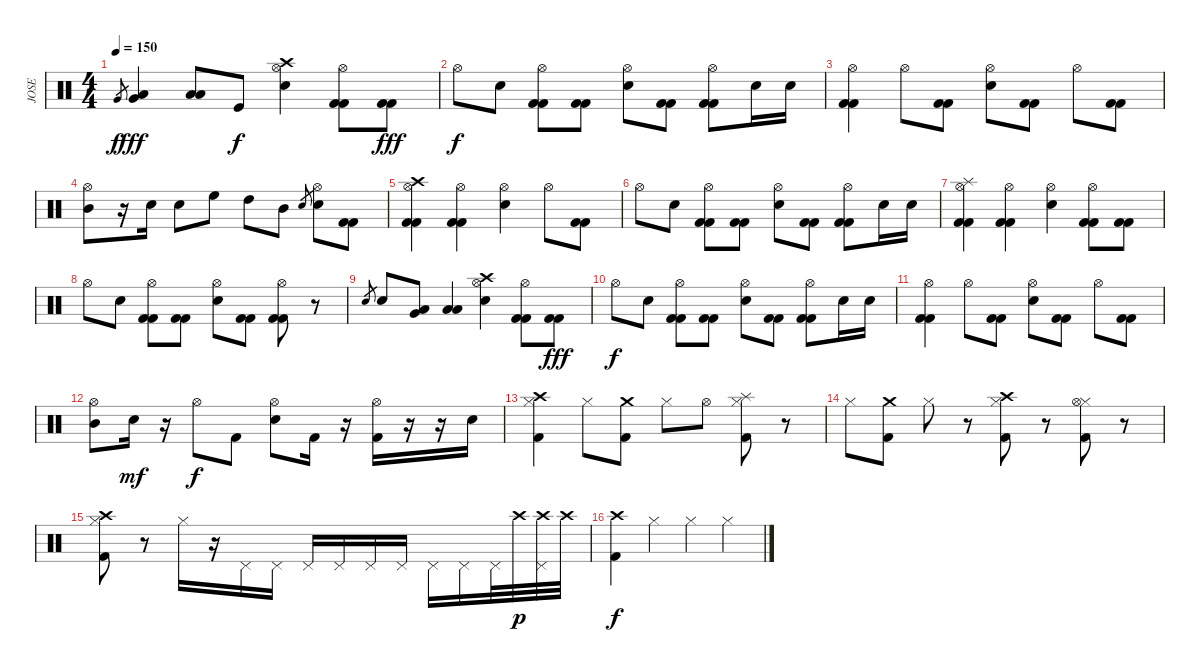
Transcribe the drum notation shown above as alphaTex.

\track ("JOSE" "JOSE") {instrument percussion}
\staff {score}
\articulation defaults
\ts (4 4)
\tempo 150
\clef neutral
\ks c "Very Low Tom (hit)".8{gr dy f}
("Low Tom (hit)" "Very Low Tom (hit)").4{dy fff} ("Low Tom (hit)" "Low Floor Tom (hit)").8 "Kick (hit)".8{dy f} ("Hi-Hat (open)" "Crash high (hit)" "Electric Snare (hit)").4 ("Hi-Hat (open)" "Kick (hit) 2" "Kick (hit) 2").8 ("Kick (hit) 2" "Kick (hit) 2").8{dy fff} |
"Hi-Hat (open)".8{dy f} "Electric Snare (hit)".8 ("Hi-Hat (open)" "Kick (hit) 2" "Kick (hit) 2").8 ("Kick (hit) 2" "Kick (hit) 2").8 ("Hi-Hat (open)" "Electric Snare (hit)").8 ("Kick (hit) 2" "Kick (hit) 2").8 ("Hi-Hat (open)" "Kick (hit) 2" "Kick (hit) 2").8 "Electric Snare (hit)".16 "Electric Snare (hit)".16 |
("Hi-Hat (open)" "Kick (hit) 2" "Kick (hit) 2").4 "Hi-Hat (open)".8 ("Kick (hit) 2" "Kick (hit) 2").8 ("Hi-Hat (open)" "Electric Snare (hit)").8 ("Kick (hit) 2" "Kick (hit) 2").8 "Hi-Hat (open)".8 ("Kick (hit) 2" "Kick (hit) 2").8 |
("Hi-Hat (open)" "Mid Tom (hit)").8 r.16 "Electric Snare (hit)".16 "Electric Snare (hit)".8 "High Floor Tom (hit)".8 "High Tom (hit)".8 "Mid Tom (hit)".8 "Electric Snare (hit)".8{gr} ("Hi-Hat (open)" "Electric Snare (hit)").8 ("Kick (hit) 2" "Kick (hit) 2").8 |
("Hi-Hat (open)" "Crash high (hit)" "Kick (hit) 2" "Kick (hit) 2").4 ("Hi-Hat (open)" "Kick (hit) 2" "Kick (hit) 2").4 ("Hi-Hat (open)" "Electric Snare (hit)").4 "Hi-Hat (open)".8 ("Kick (hit) 2" "Kick (hit) 2").8 |
"Hi-Hat (open)".8 "Electric Snare (hit)".8 ("Hi-Hat (open)" "Kick (hit) 2" "Kick (hit) 2").8 ("Kick (hit) 2" "Kick (hit) 2").8 ("Hi-Hat (open)" "Electric Snare (hit)").8 ("Kick (hit) 2" "Kick (hit) 2").8 ("Hi-Hat (open)" "Kick (hit) 2" "Kick (hit) 2").8 "Electric Snare (hit)".16 "Electric Snare (hit)".16 |
("Hi-Hat (open)" "Splash (hit)" "Kick (hit) 2" "Kick (hit) 2").4 ("Hi-Hat (open)" "Kick (hit) 2" "Kick (hit) 2").4 ("Hi-Hat (open)" "Electric Snare (hit)").4 ("Hi-Hat (open)" "Kick (hit) 2" "Kick (hit) 2").8 ("Kick (hit) 2" "Kick (hit) 2").8 |
"Hi-Hat (open)".8 "Electric Snare (hit)".8 ("Hi-Hat (open)" "Kick (hit) 2" "Kick (hit) 2").8 ("Kick (hit) 2" "Kick (hit) 2").8 ("Hi-Hat (open)" "Electric Snare (hit)").8 ("Kick (hit) 2" "Kick (hit) 2").8 ("Hi-Hat (open)" "Kick (hit) 2" "Kick (hit) 2").8 r.8 |
"Electric Snare (hit)".8{gr} "Electric Snare (hit)".8 ("Very Low Tom (hit)" "Low Tom (hit)").8 ("Low Floor Tom (hit)" "Low Tom (hit)").4 ("Hi-Hat (open)" "Crash high (hit)" "Electric Snare (hit)").4 ("Hi-Hat (open)" "Kick (hit) 2" "Kick (hit) 2").8 ("Kick (hit) 2" "Kick (hit) 2").8{dy fff} |
"Hi-Hat (open)".8{dy f} "Electric Snare (hit)".8 ("Hi-Hat (open)" "Kick (hit) 2" "Kick (hit) 2").8 ("Kick (hit) 2" "Kick (hit) 2").8 ("Hi-Hat (open)" "Electric Snare (hit)").8 ("Kick (hit) 2" "Kick (hit) 2").8 ("Hi-Hat (open)" "Kick (hit) 2" "Kick (hit) 2").8 "Electric Snare (hit)".16 "Electric Snare (hit)".16 |
("Hi-Hat (open)" "Kick (hit) 2" "Kick (hit) 2").4 "Hi-Hat (open)".8 ("Kick (hit) 2" "Kick (hit) 2").8 ("Hi-Hat (open)" "Electric Snare (hit)").8 ("Kick (hit) 2" "Kick (hit) 2").8 "Hi-Hat (open)".8 ("Kick (hit) 2" "Kick (hit) 2").8 |
("Hi-Hat (open)" "Mid Tom (hit)").8 "Electric Snare (hit)".16{dy mf} r.16 "Hi-Hat (open)".8{dy f} "Kick (hit) 2".8 ("Hi-Hat (open)" "Electric Snare (hit)").8 "Kick (hit) 2".16 r.16 ("Hi-Hat (open)" "Kick (hit) 2").16 r.16 r.16 "Electric Snare (hit)".16 |
("Crash high (hit)" "Hi-Hat (closed)" "Kick (hit) 2").4 "Hi-Hat (closed)".8 ("Crash medium (hit)" "Kick (hit) 2").8 "Hi-Hat (closed)".8 "Hi-Hat (open)".8 ("Hi-Hat (closed)" "Splash (hit)" "Kick (hit) 2").8 r.8 |
"Hi-Hat (closed)".8 ("Crash medium (hit)" "Kick (hit) 2").8 "Hi-Hat (closed)".8 r.8 ("Hi-Hat (closed)" "Crash high (hit)" "Kick (hit) 2").8 r.8 ("Hi-Hat (closed)" "Hi-Hat (open)" "Kick (hit) 2").8 r.8 |
("Hi-Hat (closed)" "Crash high (hit)" "Kick (hit) 2").8 r.8 "Hi-Hat (closed)".16 r.16 "Pedal Hi-Hat (hit)".16 "Pedal Hi-Hat (hit)".16 "Pedal Hi-Hat (hit)".16 "Pedal Hi-Hat (hit)".16 "Pedal Hi-Hat (hit)".16 "Pedal Hi-Hat (hit)".16 "Pedal Hi-Hat (hit)".16 "Pedal Hi-Hat (hit)".16 "Pedal Hi-Hat (hit)".32 "Crash high (hit)".32{dy p} ("Crash high (hit)" "Pedal Hi-Hat (hit)").32 "Crash high (hit)".32 |
("Crash high (hit)" "Kick (hit) 2").4{dy f} "Hi-Hat (closed)".4 "Hi-Hat (closed)".4 "Hi-Hat (closed)".4
